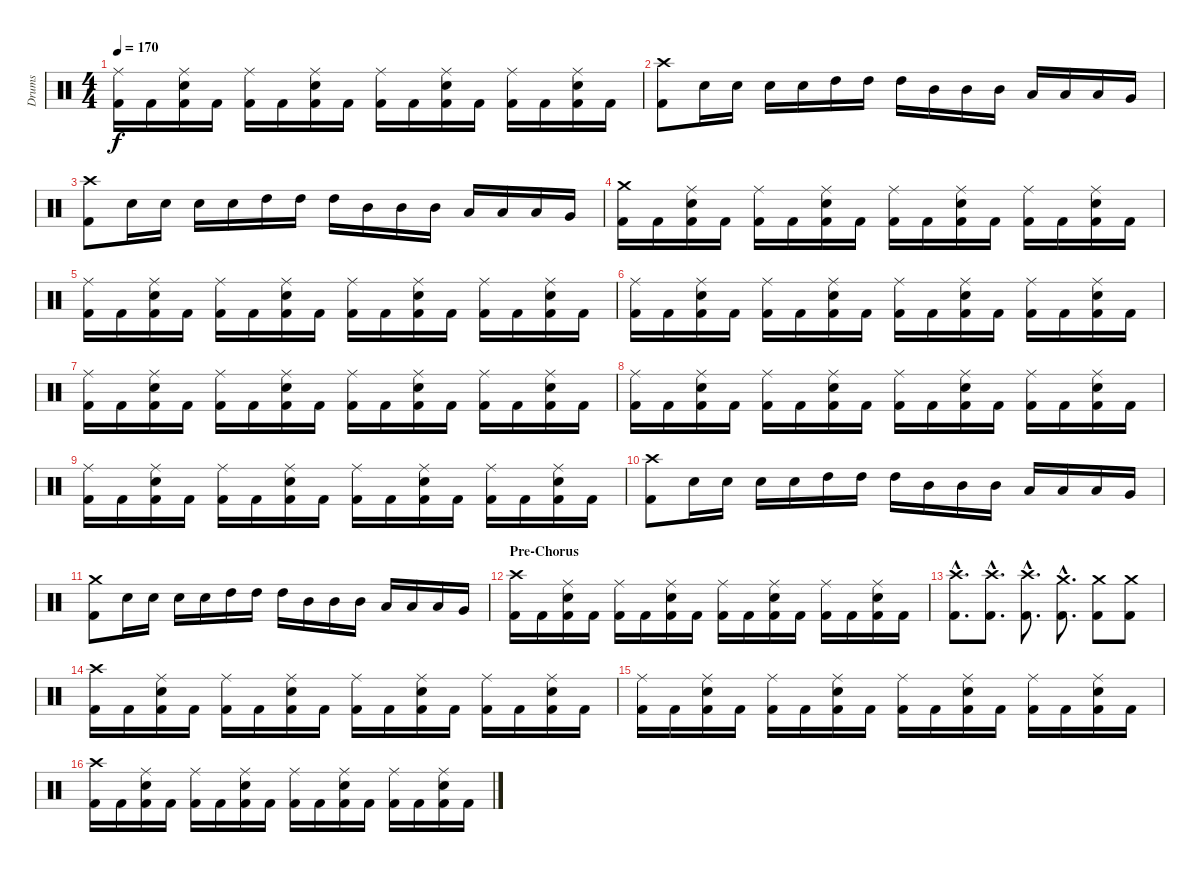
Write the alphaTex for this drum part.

\track ("Drums" "Drums") {instrument percussion}
\staff {score}
\articulation defaults
\ts (4 4)
\tempo 170
\clef neutral
\ks c
("Ride (middle)" "Kick (hit) 2").16{dy f} "Kick (hit) 2".16 ("Ride (middle)" "Snare (hit) 2" "Kick (hit) 2").16 "Kick (hit) 2".16 ("Ride (middle)" "Kick (hit) 2").16 "Kick (hit) 2".16 ("Ride (middle)" "Snare (hit) 2" "Kick (hit) 2").16 "Kick (hit) 2".16 ("Ride (middle)" "Kick (hit) 2").16 "Kick (hit) 2".16 ("Ride (middle)" "Snare (hit) 2" "Kick (hit) 2").16 "Kick (hit) 2".16 ("Ride (middle)" "Kick (hit) 2").16 "Kick (hit) 2".16 ("Ride (middle)" "Snare (hit) 2" "Kick (hit) 2").16 "Kick (hit) 2".16 |
("Crash high (hit)" "Kick (hit) 2").8 "Snare (hit) 2".16 "Snare (hit) 2".16 "Snare (hit) 2".16 "Snare (hit) 2".16 "High Tom (hit)".16 "High Tom (hit)".16 "High Tom (hit)".16 "Mid Tom (hit)".16 "Mid Tom (hit)".16 "Mid Tom (hit)".16 "Low Tom (hit)".16 "Low Tom (hit)".16 "Low Tom (hit)".16 "Very Low Tom (hit)".16 |
("Crash high (hit)" "Kick (hit) 2").8 "Snare (hit) 2".16 "Snare (hit) 2".16 "Snare (hit) 2".16 "Snare (hit) 2".16 "High Tom (hit)".16 "High Tom (hit)".16 "High Tom (hit)".16 "Mid Tom (hit)".16 "Mid Tom (hit)".16 "Mid Tom (hit)".16 "Low Tom (hit)".16 "Low Tom (hit)".16 "Low Tom (hit)".16 "Very Low Tom (hit)".16 |
("Crash medium (hit)" "Kick (hit) 2").16 "Kick (hit) 2".16 ("Ride (middle)" "Snare (hit) 2" "Kick (hit) 2").16 "Kick (hit) 2".16 ("Ride (middle)" "Kick (hit) 2").16 "Kick (hit) 2".16 ("Ride (middle)" "Snare (hit) 2" "Kick (hit) 2").16 "Kick (hit) 2".16 ("Ride (middle)" "Kick (hit) 2").16 "Kick (hit) 2".16 ("Ride (middle)" "Snare (hit) 2" "Kick (hit) 2").16 "Kick (hit) 2".16 ("Ride (middle)" "Kick (hit) 2").16 "Kick (hit) 2".16 ("Ride (middle)" "Snare (hit) 2" "Kick (hit) 2").16 "Kick (hit) 2".16 |
("Ride (middle)" "Kick (hit) 2").16 "Kick (hit) 2".16 ("Ride (middle)" "Snare (hit) 2" "Kick (hit) 2").16 "Kick (hit) 2".16 ("Ride (middle)" "Kick (hit) 2").16 "Kick (hit) 2".16 ("Ride (middle)" "Snare (hit) 2" "Kick (hit) 2").16 "Kick (hit) 2".16 ("Ride (middle)" "Kick (hit) 2").16 "Kick (hit) 2".16 ("Ride (middle)" "Snare (hit) 2" "Kick (hit) 2").16 "Kick (hit) 2".16 ("Ride (middle)" "Kick (hit) 2").16 "Kick (hit) 2".16 ("Ride (middle)" "Snare (hit) 2" "Kick (hit) 2").16 "Kick (hit) 2".16 |
("Ride (middle)" "Kick (hit) 2").16 "Kick (hit) 2".16 ("Ride (middle)" "Snare (hit) 2" "Kick (hit) 2").16 "Kick (hit) 2".16 ("Ride (middle)" "Kick (hit) 2").16 "Kick (hit) 2".16 ("Ride (middle)" "Snare (hit) 2" "Kick (hit) 2").16 "Kick (hit) 2".16 ("Ride (middle)" "Kick (hit) 2").16 "Kick (hit) 2".16 ("Ride (middle)" "Snare (hit) 2" "Kick (hit) 2").16 "Kick (hit) 2".16 ("Ride (middle)" "Kick (hit) 2").16 "Kick (hit) 2".16 ("Ride (middle)" "Snare (hit) 2" "Kick (hit) 2").16 "Kick (hit) 2".16 |
("Ride (middle)" "Kick (hit) 2").16 "Kick (hit) 2".16 ("Ride (middle)" "Snare (hit) 2" "Kick (hit) 2").16 "Kick (hit) 2".16 ("Ride (middle)" "Kick (hit) 2").16 "Kick (hit) 2".16 ("Ride (middle)" "Snare (hit) 2" "Kick (hit) 2").16 "Kick (hit) 2".16 ("Ride (middle)" "Kick (hit) 2").16 "Kick (hit) 2".16 ("Ride (middle)" "Snare (hit) 2" "Kick (hit) 2").16 "Kick (hit) 2".16 ("Ride (middle)" "Kick (hit) 2").16 "Kick (hit) 2".16 ("Ride (middle)" "Snare (hit) 2" "Kick (hit) 2").16 "Kick (hit) 2".16 |
("Ride (middle)" "Kick (hit) 2").16 "Kick (hit) 2".16 ("Ride (middle)" "Snare (hit) 2" "Kick (hit) 2").16 "Kick (hit) 2".16 ("Ride (middle)" "Kick (hit) 2").16 "Kick (hit) 2".16 ("Ride (middle)" "Snare (hit) 2" "Kick (hit) 2").16 "Kick (hit) 2".16 ("Ride (middle)" "Kick (hit) 2").16 "Kick (hit) 2".16 ("Ride (middle)" "Snare (hit) 2" "Kick (hit) 2").16 "Kick (hit) 2".16 ("Ride (middle)" "Kick (hit) 2").16 "Kick (hit) 2".16 ("Ride (middle)" "Snare (hit) 2" "Kick (hit) 2").16 "Kick (hit) 2".16 |
("Ride (middle)" "Kick (hit) 2").16 "Kick (hit) 2".16 ("Ride (middle)" "Snare (hit) 2" "Kick (hit) 2").16 "Kick (hit) 2".16 ("Ride (middle)" "Kick (hit) 2").16 "Kick (hit) 2".16 ("Ride (middle)" "Snare (hit) 2" "Kick (hit) 2").16 "Kick (hit) 2".16 ("Ride (middle)" "Kick (hit) 2").16 "Kick (hit) 2".16 ("Ride (middle)" "Snare (hit) 2" "Kick (hit) 2").16 "Kick (hit) 2".16 ("Ride (middle)" "Kick (hit) 2").16 "Kick (hit) 2".16 ("Ride (middle)" "Snare (hit) 2" "Kick (hit) 2").16 "Kick (hit) 2".16 |
("Crash high (hit)" "Kick (hit) 2").8 "Snare (hit) 2".16 "Snare (hit) 2".16 "Snare (hit) 2".16 "Snare (hit) 2".16 "High Tom (hit)".16 "High Tom (hit)".16 "High Tom (hit)".16 "Mid Tom (hit)".16 "Mid Tom (hit)".16 "Mid Tom (hit)".16 "Low Tom (hit)".16 "Low Tom (hit)".16 "Low Tom (hit)".16 "Very Low Tom (hit)".16 |
("Crash medium (hit)" "Kick (hit) 2").8 "Snare (hit) 2".16 "Snare (hit) 2".16 "Snare (hit) 2".16 "Snare (hit) 2".16 "High Tom (hit)".16 "High Tom (hit)".16 "High Tom (hit)".16 "Mid Tom (hit)".16 "Mid Tom (hit)".16 "Mid Tom (hit)".16 "Low Tom (hit)".16 "Low Tom (hit)".16 "Low Tom (hit)".16 "Very Low Tom (hit)".16 |
\section ("" "Pre-Chorus")
("Crash high (hit)" "Kick (hit) 2").16 "Kick (hit) 2".16 ("Ride (middle)" "Snare (hit) 2" "Kick (hit) 2").16 "Kick (hit) 2".16 ("Ride (middle)" "Kick (hit) 2").16 "Kick (hit) 2".16 ("Ride (middle)" "Snare (hit) 2" "Kick (hit) 2").16 "Kick (hit) 2".16 ("Ride (middle)" "Kick (hit) 2").16 "Kick (hit) 2".16 ("Ride (middle)" "Snare (hit) 2" "Kick (hit) 2").16 "Kick (hit) 2".16 ("Ride (middle)" "Kick (hit) 2").16 "Kick (hit) 2".16 ("Ride (middle)" "Snare (hit) 2" "Kick (hit) 2").16 "Kick (hit) 2".16 |
("Crash high (hit)"{hac} "Kick (hit) 2"{hac}).8{d} ("Crash high (hit)"{hac} "Kick (hit) 2"{hac}).8{d} ("Crash high (hit)"{hac} "Kick (hit) 2"{hac}).8{d} ("Crash medium (hit)"{hac} "Kick (hit) 2"{hac}).8{d} ("Crash medium (hit)" "Kick (hit) 2").8 ("Crash medium (hit)" "Kick (hit) 2").8 |
("Crash high (hit)" "Kick (hit) 2").16 "Kick (hit) 2".16 ("Ride (middle)" "Snare (hit) 2" "Kick (hit) 2").16 "Kick (hit) 2".16 ("Ride (middle)" "Kick (hit) 2").16 "Kick (hit) 2".16 ("Ride (middle)" "Snare (hit) 2" "Kick (hit) 2").16 "Kick (hit) 2".16 ("Ride (middle)" "Kick (hit) 2").16 "Kick (hit) 2".16 ("Ride (middle)" "Snare (hit) 2" "Kick (hit) 2").16 "Kick (hit) 2".16 ("Ride (middle)" "Kick (hit) 2").16 "Kick (hit) 2".16 ("Ride (middle)" "Snare (hit) 2" "Kick (hit) 2").16 "Kick (hit) 2".16 |
("Ride (middle)" "Kick (hit) 2").16 "Kick (hit) 2".16 ("Ride (middle)" "Snare (hit) 2" "Kick (hit) 2").16 "Kick (hit) 2".16 ("Ride (middle)" "Kick (hit) 2").16 "Kick (hit) 2".16 ("Ride (middle)" "Snare (hit) 2" "Kick (hit) 2").16 "Kick (hit) 2".16 ("Ride (middle)" "Kick (hit) 2").16 "Kick (hit) 2".16 ("Ride (middle)" "Snare (hit) 2" "Kick (hit) 2").16 "Kick (hit) 2".16 ("Ride (middle)" "Kick (hit) 2").16 "Kick (hit) 2".16 ("Ride (middle)" "Snare (hit) 2" "Kick (hit) 2").16 "Kick (hit) 2".16 |
("Crash high (hit)" "Kick (hit) 2").16 "Kick (hit) 2".16 ("Ride (middle)" "Snare (hit) 2" "Kick (hit) 2").16 "Kick (hit) 2".16 ("Ride (middle)" "Kick (hit) 2").16 "Kick (hit) 2".16 ("Ride (middle)" "Snare (hit) 2" "Kick (hit) 2").16 "Kick (hit) 2".16 ("Ride (middle)" "Kick (hit) 2").16 "Kick (hit) 2".16 ("Ride (middle)" "Snare (hit) 2" "Kick (hit) 2").16 "Kick (hit) 2".16 ("Ride (middle)" "Kick (hit) 2").16 "Kick (hit) 2".16 ("Ride (middle)" "Snare (hit) 2" "Kick (hit) 2").16 "Kick (hit) 2".16
